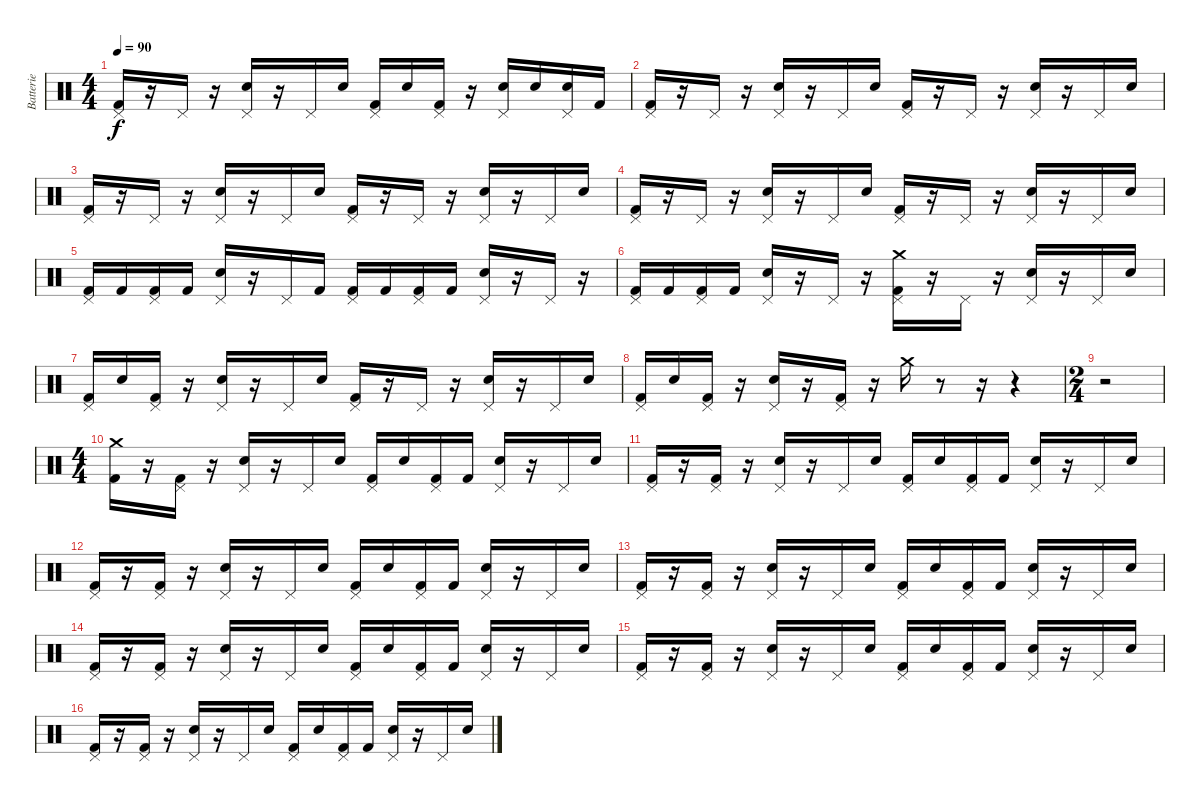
\track ("Batterie" "Batterie") {instrument percussion}
\staff {score}
\articulation defaults
\ts (4 4)
\tempo 90
\clef neutral
\ks c
("Pedal Hi-Hat (hit)" "Kick (hit) 2").16{dy f} r.16 "Pedal Hi-Hat (hit)".16 r.16 ("Pedal Hi-Hat (hit)" "Electric Snare (hit)").16 r.16 "Pedal Hi-Hat (hit)".16 "Electric Snare (hit)".16 ("Pedal Hi-Hat (hit)" "Kick (hit) 2").16 "Electric Snare (hit)".16 ("Pedal Hi-Hat (hit)" "Kick (hit) 2").16 r.16 ("Pedal Hi-Hat (hit)" "Electric Snare (hit)").16 "Electric Snare (hit)".16 ("Pedal Hi-Hat (hit)" "Electric Snare (hit)").16 "Kick (hit) 2".16 |
("Pedal Hi-Hat (hit)" "Kick (hit) 2").16 r.16 "Pedal Hi-Hat (hit)".16 r.16 ("Pedal Hi-Hat (hit)" "Electric Snare (hit)").16 r.16 "Pedal Hi-Hat (hit)".16 "Electric Snare (hit)".16 ("Pedal Hi-Hat (hit)" "Kick (hit) 2").16 r.16 "Pedal Hi-Hat (hit)".16 r.16 ("Pedal Hi-Hat (hit)" "Electric Snare (hit)").16 r.16 "Pedal Hi-Hat (hit)".16 "Electric Snare (hit)".16 |
("Pedal Hi-Hat (hit)" "Kick (hit) 2").16 r.16 "Pedal Hi-Hat (hit)".16 r.16 ("Pedal Hi-Hat (hit)" "Electric Snare (hit)").16 r.16 "Pedal Hi-Hat (hit)".16 "Electric Snare (hit)".16 ("Pedal Hi-Hat (hit)" "Kick (hit) 2").16 r.16 "Pedal Hi-Hat (hit)".16 r.16 ("Pedal Hi-Hat (hit)" "Electric Snare (hit)").16 r.16 "Pedal Hi-Hat (hit)".16 "Electric Snare (hit)".16 |
("Pedal Hi-Hat (hit)" "Kick (hit) 2").16 r.16 "Pedal Hi-Hat (hit)".16 r.16 ("Pedal Hi-Hat (hit)" "Electric Snare (hit)").16 r.16 "Pedal Hi-Hat (hit)".16 "Electric Snare (hit)".16 ("Pedal Hi-Hat (hit)" "Kick (hit) 2").16 r.16 "Pedal Hi-Hat (hit)".16 r.16 ("Pedal Hi-Hat (hit)" "Electric Snare (hit)").16 r.16 "Pedal Hi-Hat (hit)".16 "Electric Snare (hit)".16 |
("Pedal Hi-Hat (hit)" "Kick (hit) 2").16 "Kick (hit) 2".16 ("Pedal Hi-Hat (hit)" "Kick (hit) 2").16 "Kick (hit) 2".16 ("Pedal Hi-Hat (hit)" "Electric Snare (hit)").16 r.16 "Pedal Hi-Hat (hit)".16 "Kick (hit) 2".16 ("Pedal Hi-Hat (hit)" "Kick (hit) 2").16 "Kick (hit) 2".16 ("Pedal Hi-Hat (hit)" "Kick (hit) 2").16 "Kick (hit) 2".16 ("Pedal Hi-Hat (hit)" "Electric Snare (hit)").16 r.16 "Pedal Hi-Hat (hit)".16 r.16 |
("Pedal Hi-Hat (hit)" "Kick (hit) 2").16 "Kick (hit) 2".16 ("Pedal Hi-Hat (hit)" "Kick (hit) 2").16 "Kick (hit) 2".16 ("Pedal Hi-Hat (hit)" "Electric Snare (hit)").16 r.16 "Pedal Hi-Hat (hit)".16 r.16 ("Pedal Hi-Hat (hit)" "Crash medium (hit)" "Kick (hit) 2").16 r.16 "Pedal Hi-Hat (hit)".16 r.16 ("Pedal Hi-Hat (hit)" "Electric Snare (hit)").16 r.16 "Pedal Hi-Hat (hit)".16 "Electric Snare (hit)".16 |
("Pedal Hi-Hat (hit)" "Kick (hit) 2").16 "Electric Snare (hit)".16 ("Pedal Hi-Hat (hit)" "Kick (hit) 2").16 r.16 ("Pedal Hi-Hat (hit)" "Electric Snare (hit)").16 r.16 "Pedal Hi-Hat (hit)".16 "Electric Snare (hit)".16 ("Pedal Hi-Hat (hit)" "Kick (hit) 2").16 r.16 "Pedal Hi-Hat (hit)".16 r.16 ("Pedal Hi-Hat (hit)" "Electric Snare (hit)").16 r.16 "Pedal Hi-Hat (hit)".16 "Electric Snare (hit)".16 |
("Pedal Hi-Hat (hit)" "Kick (hit) 2").16 "Electric Snare (hit)".16 ("Pedal Hi-Hat (hit)" "Kick (hit) 2").16 r.16 ("Pedal Hi-Hat (hit)" "Electric Snare (hit)").16 r.16 ("Pedal Hi-Hat (hit)" "Kick (hit) 2").16 r.16 "Crash medium (hit)".16 r.8 r.16 r.4 |
\ts (2 4)
r.2 |
\ts (4 4)
("Crash medium (hit)" "Kick (hit) 2").16 r.16 ("Pedal Hi-Hat (hit)" "Kick (hit) 2").16 r.16 ("Pedal Hi-Hat (hit)" "Electric Snare (hit)").16 r.16 "Pedal Hi-Hat (hit)".16 "Electric Snare (hit)".16 ("Pedal Hi-Hat (hit)" "Kick (hit) 2").16 "Electric Snare (hit)".16 ("Pedal Hi-Hat (hit)" "Kick (hit) 2").16 "Kick (hit) 2".16 ("Pedal Hi-Hat (hit)" "Electric Snare (hit)").16 r.16 "Pedal Hi-Hat (hit)".16 "Electric Snare (hit)".16 |
("Pedal Hi-Hat (hit)" "Kick (hit) 2").16 r.16 ("Pedal Hi-Hat (hit)" "Kick (hit) 2").16 r.16 ("Pedal Hi-Hat (hit)" "Electric Snare (hit)").16 r.16 "Pedal Hi-Hat (hit)".16 "Electric Snare (hit)".16 ("Pedal Hi-Hat (hit)" "Kick (hit) 2").16 "Electric Snare (hit)".16 ("Pedal Hi-Hat (hit)" "Kick (hit) 2").16 "Kick (hit) 2".16 ("Pedal Hi-Hat (hit)" "Electric Snare (hit)").16 r.16 "Pedal Hi-Hat (hit)".16 "Electric Snare (hit)".16 |
("Pedal Hi-Hat (hit)" "Kick (hit) 2").16 r.16 ("Pedal Hi-Hat (hit)" "Kick (hit) 2").16 r.16 ("Pedal Hi-Hat (hit)" "Electric Snare (hit)").16 r.16 "Pedal Hi-Hat (hit)".16 "Electric Snare (hit)".16 ("Pedal Hi-Hat (hit)" "Kick (hit) 2").16 "Electric Snare (hit)".16 ("Pedal Hi-Hat (hit)" "Kick (hit) 2").16 "Kick (hit) 2".16 ("Pedal Hi-Hat (hit)" "Electric Snare (hit)").16 r.16 "Pedal Hi-Hat (hit)".16 "Electric Snare (hit)".16 |
("Pedal Hi-Hat (hit)" "Kick (hit) 2").16 r.16 ("Pedal Hi-Hat (hit)" "Kick (hit) 2").16 r.16 ("Pedal Hi-Hat (hit)" "Electric Snare (hit)").16 r.16 "Pedal Hi-Hat (hit)".16 "Electric Snare (hit)".16 ("Pedal Hi-Hat (hit)" "Kick (hit) 2").16 "Electric Snare (hit)".16 ("Pedal Hi-Hat (hit)" "Kick (hit) 2").16 "Kick (hit) 2".16 ("Pedal Hi-Hat (hit)" "Electric Snare (hit)").16 r.16 "Pedal Hi-Hat (hit)".16 "Electric Snare (hit)".16 |
("Pedal Hi-Hat (hit)" "Kick (hit) 2").16 r.16 ("Pedal Hi-Hat (hit)" "Kick (hit) 2").16 r.16 ("Pedal Hi-Hat (hit)" "Electric Snare (hit)").16 r.16 "Pedal Hi-Hat (hit)".16 "Electric Snare (hit)".16 ("Pedal Hi-Hat (hit)" "Kick (hit) 2").16 "Electric Snare (hit)".16 ("Pedal Hi-Hat (hit)" "Kick (hit) 2").16 "Kick (hit) 2".16 ("Pedal Hi-Hat (hit)" "Electric Snare (hit)").16 r.16 "Pedal Hi-Hat (hit)".16 "Electric Snare (hit)".16 |
("Pedal Hi-Hat (hit)" "Kick (hit) 2").16 r.16 ("Pedal Hi-Hat (hit)" "Kick (hit) 2").16 r.16 ("Pedal Hi-Hat (hit)" "Electric Snare (hit)").16 r.16 "Pedal Hi-Hat (hit)".16 "Electric Snare (hit)".16 ("Pedal Hi-Hat (hit)" "Kick (hit) 2").16 "Electric Snare (hit)".16 ("Pedal Hi-Hat (hit)" "Kick (hit) 2").16 "Kick (hit) 2".16 ("Pedal Hi-Hat (hit)" "Electric Snare (hit)").16 r.16 "Pedal Hi-Hat (hit)".16 "Electric Snare (hit)".16 |
("Pedal Hi-Hat (hit)" "Kick (hit) 2").16 r.16 ("Pedal Hi-Hat (hit)" "Kick (hit) 2").16 r.16 ("Pedal Hi-Hat (hit)" "Electric Snare (hit)").16 r.16 "Pedal Hi-Hat (hit)".16 "Electric Snare (hit)".16 ("Pedal Hi-Hat (hit)" "Kick (hit) 2").16 "Electric Snare (hit)".16 ("Pedal Hi-Hat (hit)" "Kick (hit) 2").16 "Kick (hit) 2".16 ("Pedal Hi-Hat (hit)" "Electric Snare (hit)").16 r.16 "Pedal Hi-Hat (hit)".16 "Electric Snare (hit)".16
